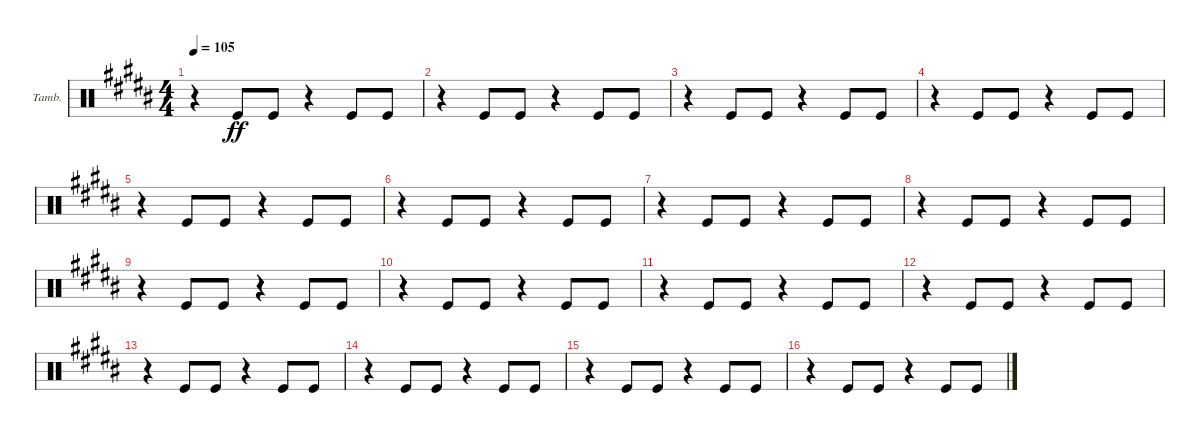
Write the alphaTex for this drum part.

\defaultSystemsLayout 4
\bracketExtendMode groupsimilarinstruments
\firstSystemTrackNameOrientation horizontal
\otherSystemsTrackNameOrientation horizontal
\track ("Tambourine" "Tamb.") {instrument percussion}
\staff {score}
\articulation defaults
\ts (4 4)
\tempo 105
\clef neutral
\ks b
r.4{dy ff} "Kick (hit)".8 "Kick (hit)".8 r.4 "Kick (hit)".8 "Kick (hit)".8 |
r.4 "Kick (hit)".8 "Kick (hit)".8 r.4 "Kick (hit)".8 "Kick (hit)".8 |
r.4 "Kick (hit)".8 "Kick (hit)".8 r.4 "Kick (hit)".8 "Kick (hit)".8 |
r.4 "Kick (hit)".8 "Kick (hit)".8 r.4 "Kick (hit)".8 "Kick (hit)".8 |
r.4 "Kick (hit)".8 "Kick (hit)".8 r.4 "Kick (hit)".8 "Kick (hit)".8 |
r.4 "Kick (hit)".8 "Kick (hit)".8 r.4 "Kick (hit)".8 "Kick (hit)".8 |
r.4 "Kick (hit)".8 "Kick (hit)".8 r.4 "Kick (hit)".8 "Kick (hit)".8 |
r.4 "Kick (hit)".8 "Kick (hit)".8 r.4 "Kick (hit)".8 "Kick (hit)".8 |
r.4 "Kick (hit)".8 "Kick (hit)".8 r.4 "Kick (hit)".8 "Kick (hit)".8 |
r.4 "Kick (hit)".8 "Kick (hit)".8 r.4 "Kick (hit)".8 "Kick (hit)".8 |
r.4 "Kick (hit)".8 "Kick (hit)".8 r.4 "Kick (hit)".8 "Kick (hit)".8 |
r.4 "Kick (hit)".8 "Kick (hit)".8 r.4 "Kick (hit)".8 "Kick (hit)".8 |
r.4 "Kick (hit)".8 "Kick (hit)".8 r.4 "Kick (hit)".8 "Kick (hit)".8 |
r.4 "Kick (hit)".8 "Kick (hit)".8 r.4 "Kick (hit)".8 "Kick (hit)".8 |
r.4 "Kick (hit)".8 "Kick (hit)".8 r.4 "Kick (hit)".8 "Kick (hit)".8 |
r.4 "Kick (hit)".8 "Kick (hit)".8 r.4 "Kick (hit)".8 "Kick (hit)".8
